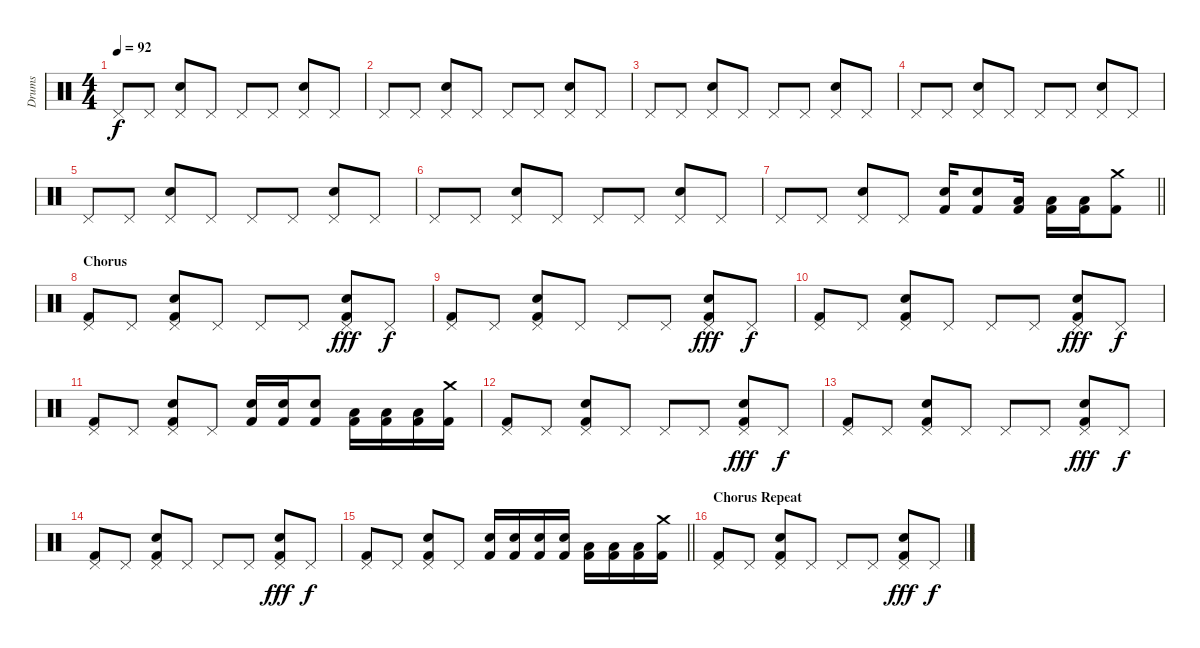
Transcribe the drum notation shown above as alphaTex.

\track ("Drums" "Drums") {instrument percussion}
\staff {score}
\articulation defaults
\ts (4 4)
\tempo 92
\clef neutral
\ks c "Pedal Hi-Hat (hit)".8{dy f} "Pedal Hi-Hat (hit)".8
("Electric Snare (hit)" "Pedal Hi-Hat (hit)").8 "Pedal Hi-Hat (hit)".8 "Pedal Hi-Hat (hit)".8 "Pedal Hi-Hat (hit)".8 ("Electric Snare (hit)" "Pedal Hi-Hat (hit)").8 "Pedal Hi-Hat (hit)".8 |
"Pedal Hi-Hat (hit)".8 "Pedal Hi-Hat (hit)".8 ("Electric Snare (hit)" "Pedal Hi-Hat (hit)").8 "Pedal Hi-Hat (hit)".8 "Pedal Hi-Hat (hit)".8 "Pedal Hi-Hat (hit)".8 ("Electric Snare (hit)" "Pedal Hi-Hat (hit)").8 "Pedal Hi-Hat (hit)".8 |
"Pedal Hi-Hat (hit)".8 "Pedal Hi-Hat (hit)".8 ("Electric Snare (hit)" "Pedal Hi-Hat (hit)").8 "Pedal Hi-Hat (hit)".8 "Pedal Hi-Hat (hit)".8 "Pedal Hi-Hat (hit)".8 ("Electric Snare (hit)" "Pedal Hi-Hat (hit)").8 "Pedal Hi-Hat (hit)".8 |
"Pedal Hi-Hat (hit)".8 "Pedal Hi-Hat (hit)".8 ("Electric Snare (hit)" "Pedal Hi-Hat (hit)").8 "Pedal Hi-Hat (hit)".8 "Pedal Hi-Hat (hit)".8 "Pedal Hi-Hat (hit)".8 ("Electric Snare (hit)" "Pedal Hi-Hat (hit)").8 "Pedal Hi-Hat (hit)".8 |
"Pedal Hi-Hat (hit)".8 "Pedal Hi-Hat (hit)".8 ("Electric Snare (hit)" "Pedal Hi-Hat (hit)").8 "Pedal Hi-Hat (hit)".8 "Pedal Hi-Hat (hit)".8 "Pedal Hi-Hat (hit)".8 ("Electric Snare (hit)" "Pedal Hi-Hat (hit)").8 "Pedal Hi-Hat (hit)".8 |
"Pedal Hi-Hat (hit)".8 "Pedal Hi-Hat (hit)".8 ("Electric Snare (hit)" "Pedal Hi-Hat (hit)").8 "Pedal Hi-Hat (hit)".8 "Pedal Hi-Hat (hit)".8 "Pedal Hi-Hat (hit)".8 ("Electric Snare (hit)" "Pedal Hi-Hat (hit)").8 "Pedal Hi-Hat (hit)".8 |
\barLineRight lightlight "Pedal Hi-Hat (hit)".8 "Pedal Hi-Hat (hit)".8
("Electric Snare (hit)" "Pedal Hi-Hat (hit)").8 "Pedal Hi-Hat (hit)".8 ("Snare (hit) 2" "Kick (hit) 2").16 ("Snare (hit) 2" "Kick (hit) 2").8 ("Low Floor Tom (hit)" "Kick (hit) 2").16 ("Low Floor Tom (hit)" "Kick (hit) 2").16 ("Low Floor Tom (hit)" "Kick (hit) 2").16 ("Crash medium (hit)" "Kick (hit) 2").8 |
\section ("" "Chorus")
("Pedal Hi-Hat (hit)" "Kick (hit) 2").8 "Pedal Hi-Hat (hit)".8 ("Pedal Hi-Hat (hit)" "Snare (hit) 2" "Kick (hit) 2").8 "Pedal Hi-Hat (hit)".8 "Pedal Hi-Hat (hit)".8 "Pedal Hi-Hat (hit)".8 ("Pedal Hi-Hat (hit)" "Snare (hit) 2" "Kick (hit) 2").8{dy fff} "Pedal Hi-Hat (hit)".8{dy f} |
("Pedal Hi-Hat (hit)" "Kick (hit) 2").8 "Pedal Hi-Hat (hit)".8 ("Pedal Hi-Hat (hit)" "Kick (hit) 2" "Snare (hit) 2").8 "Pedal Hi-Hat (hit)".8 "Pedal Hi-Hat (hit)".8 "Pedal Hi-Hat (hit)".8 ("Pedal Hi-Hat (hit)" "Snare (hit) 2" "Kick (hit) 2").8{dy fff} "Pedal Hi-Hat (hit)".8{dy f} |
("Pedal Hi-Hat (hit)" "Kick (hit) 2").8 "Pedal Hi-Hat (hit)".8 ("Pedal Hi-Hat (hit)" "Kick (hit) 2" "Snare (hit) 2").8 "Pedal Hi-Hat (hit)".8 "Pedal Hi-Hat (hit)".8 "Pedal Hi-Hat (hit)".8 ("Pedal Hi-Hat (hit)" "Snare (hit) 2" "Kick (hit) 2").8{dy fff} "Pedal Hi-Hat (hit)".8{dy f} |
("Pedal Hi-Hat (hit)" "Kick (hit) 2").8 "Pedal Hi-Hat (hit)".8 ("Pedal Hi-Hat (hit)" "Kick (hit) 2" "Snare (hit) 2").8 "Pedal Hi-Hat (hit)".8 ("Snare (hit) 2" "Kick (hit) 2").16 ("Snare (hit) 2" "Kick (hit) 2").16 ("Snare (hit) 2" "Kick (hit) 2").8 ("Low Floor Tom (hit)" "Kick (hit) 2").16 ("Low Floor Tom (hit)" "Kick (hit) 2").16 ("Low Floor Tom (hit)" "Kick (hit) 2").16 ("Crash medium (hit)" "Kick (hit) 2").16 |
("Pedal Hi-Hat (hit)" "Kick (hit) 2").8 "Pedal Hi-Hat (hit)".8 ("Pedal Hi-Hat (hit)" "Snare (hit) 2" "Kick (hit) 2").8 "Pedal Hi-Hat (hit)".8 "Pedal Hi-Hat (hit)".8 "Pedal Hi-Hat (hit)".8 ("Pedal Hi-Hat (hit)" "Snare (hit) 2" "Kick (hit) 2").8{dy fff} "Pedal Hi-Hat (hit)".8{dy f} |
("Pedal Hi-Hat (hit)" "Kick (hit) 2").8 "Pedal Hi-Hat (hit)".8 ("Pedal Hi-Hat (hit)" "Kick (hit) 2" "Snare (hit) 2").8 "Pedal Hi-Hat (hit)".8 "Pedal Hi-Hat (hit)".8 "Pedal Hi-Hat (hit)".8 ("Pedal Hi-Hat (hit)" "Snare (hit) 2" "Kick (hit) 2").8{dy fff} "Pedal Hi-Hat (hit)".8{dy f} |
("Pedal Hi-Hat (hit)" "Kick (hit) 2").8 "Pedal Hi-Hat (hit)".8 ("Pedal Hi-Hat (hit)" "Kick (hit) 2" "Snare (hit) 2").8 "Pedal Hi-Hat (hit)".8 "Pedal Hi-Hat (hit)".8 "Pedal Hi-Hat (hit)".8 ("Pedal Hi-Hat (hit)" "Snare (hit) 2" "Kick (hit) 2").8{dy fff} "Pedal Hi-Hat (hit)".8{dy f} |
\barLineRight lightlight
("Pedal Hi-Hat (hit)" "Kick (hit) 2").8 "Pedal Hi-Hat (hit)".8 ("Pedal Hi-Hat (hit)" "Kick (hit) 2" "Snare (hit) 2").8 "Pedal Hi-Hat (hit)".8 ("Snare (hit) 2" "Kick (hit) 2").16 ("Snare (hit) 2" "Kick (hit) 2").16 ("Snare (hit) 2" "Kick (hit) 2").16 ("Snare (hit) 2" "Kick (hit) 2").16 ("Low Floor Tom (hit)" "Kick (hit) 2").16 ("Low Floor Tom (hit)" "Kick (hit) 2").16 ("Low Floor Tom (hit)" "Kick (hit) 2").16 ("Crash medium (hit)" "Kick (hit) 2").16 |
\section ("" "Chorus Repeat")
("Pedal Hi-Hat (hit)" "Kick (hit) 2").8 "Pedal Hi-Hat (hit)".8 ("Pedal Hi-Hat (hit)" "Snare (hit) 2" "Kick (hit) 2").8 "Pedal Hi-Hat (hit)".8 "Pedal Hi-Hat (hit)".8 "Pedal Hi-Hat (hit)".8 ("Pedal Hi-Hat (hit)" "Snare (hit) 2" "Kick (hit) 2").8{dy fff} "Pedal Hi-Hat (hit)".8{dy f}
